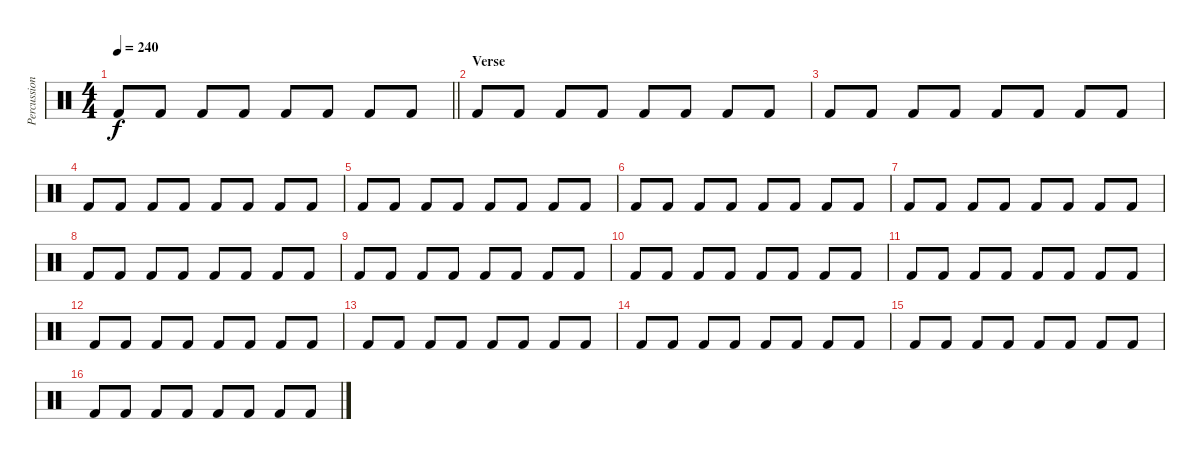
\track ("Percussion" "Percussion") {instrument percussion}
\staff {score}
\articulation defaults
\ts (4 4)
\tempo 240
\clef neutral
\barLineRight lightlight
\ks c "Kick (hit) 2".8{dy f} "Kick (hit) 2".8 "Kick (hit) 2".8 "Kick (hit) 2".8 "Kick (hit) 2".8 "Kick (hit) 2".8 "Kick (hit) 2".8 "Kick (hit) 2".8
|
\section ("" "Verse")
"Kick (hit) 2".8 "Kick (hit) 2".8 "Kick (hit) 2".8 "Kick (hit) 2".8 "Kick (hit) 2".8 "Kick (hit) 2".8 "Kick (hit) 2".8 "Kick (hit) 2".8 |
"Kick (hit) 2".8 "Kick (hit) 2".8 "Kick (hit) 2".8 "Kick (hit) 2".8 "Kick (hit) 2".8 "Kick (hit) 2".8 "Kick (hit) 2".8 "Kick (hit) 2".8 |
"Kick (hit) 2".8 "Kick (hit) 2".8 "Kick (hit) 2".8 "Kick (hit) 2".8 "Kick (hit) 2".8 "Kick (hit) 2".8 "Kick (hit) 2".8 "Kick (hit) 2".8 |
"Kick (hit) 2".8 "Kick (hit) 2".8 "Kick (hit) 2".8 "Kick (hit) 2".8 "Kick (hit) 2".8 "Kick (hit) 2".8 "Kick (hit) 2".8 "Kick (hit) 2".8 |
"Kick (hit) 2".8 "Kick (hit) 2".8 "Kick (hit) 2".8 "Kick (hit) 2".8 "Kick (hit) 2".8 "Kick (hit) 2".8 "Kick (hit) 2".8 "Kick (hit) 2".8 |
"Kick (hit) 2".8 "Kick (hit) 2".8 "Kick (hit) 2".8 "Kick (hit) 2".8 "Kick (hit) 2".8 "Kick (hit) 2".8 "Kick (hit) 2".8 "Kick (hit) 2".8 |
"Kick (hit) 2".8 "Kick (hit) 2".8 "Kick (hit) 2".8 "Kick (hit) 2".8 "Kick (hit) 2".8 "Kick (hit) 2".8 "Kick (hit) 2".8 "Kick (hit) 2".8 |
"Kick (hit) 2".8 "Kick (hit) 2".8 "Kick (hit) 2".8 "Kick (hit) 2".8 "Kick (hit) 2".8 "Kick (hit) 2".8 "Kick (hit) 2".8 "Kick (hit) 2".8 |
"Kick (hit) 2".8 "Kick (hit) 2".8 "Kick (hit) 2".8 "Kick (hit) 2".8 "Kick (hit) 2".8 "Kick (hit) 2".8 "Kick (hit) 2".8 "Kick (hit) 2".8 |
"Kick (hit) 2".8 "Kick (hit) 2".8 "Kick (hit) 2".8 "Kick (hit) 2".8 "Kick (hit) 2".8 "Kick (hit) 2".8 "Kick (hit) 2".8 "Kick (hit) 2".8 |
"Kick (hit) 2".8 "Kick (hit) 2".8 "Kick (hit) 2".8 "Kick (hit) 2".8 "Kick (hit) 2".8 "Kick (hit) 2".8 "Kick (hit) 2".8 "Kick (hit) 2".8 |
"Kick (hit) 2".8 "Kick (hit) 2".8 "Kick (hit) 2".8 "Kick (hit) 2".8 "Kick (hit) 2".8 "Kick (hit) 2".8 "Kick (hit) 2".8 "Kick (hit) 2".8 |
"Kick (hit) 2".8 "Kick (hit) 2".8 "Kick (hit) 2".8 "Kick (hit) 2".8 "Kick (hit) 2".8 "Kick (hit) 2".8 "Kick (hit) 2".8 "Kick (hit) 2".8 |
"Kick (hit) 2".8 "Kick (hit) 2".8 "Kick (hit) 2".8 "Kick (hit) 2".8 "Kick (hit) 2".8 "Kick (hit) 2".8 "Kick (hit) 2".8 "Kick (hit) 2".8 |
"Kick (hit) 2".8 "Kick (hit) 2".8 "Kick (hit) 2".8 "Kick (hit) 2".8 "Kick (hit) 2".8 "Kick (hit) 2".8 "Kick (hit) 2".8 "Kick (hit) 2".8
